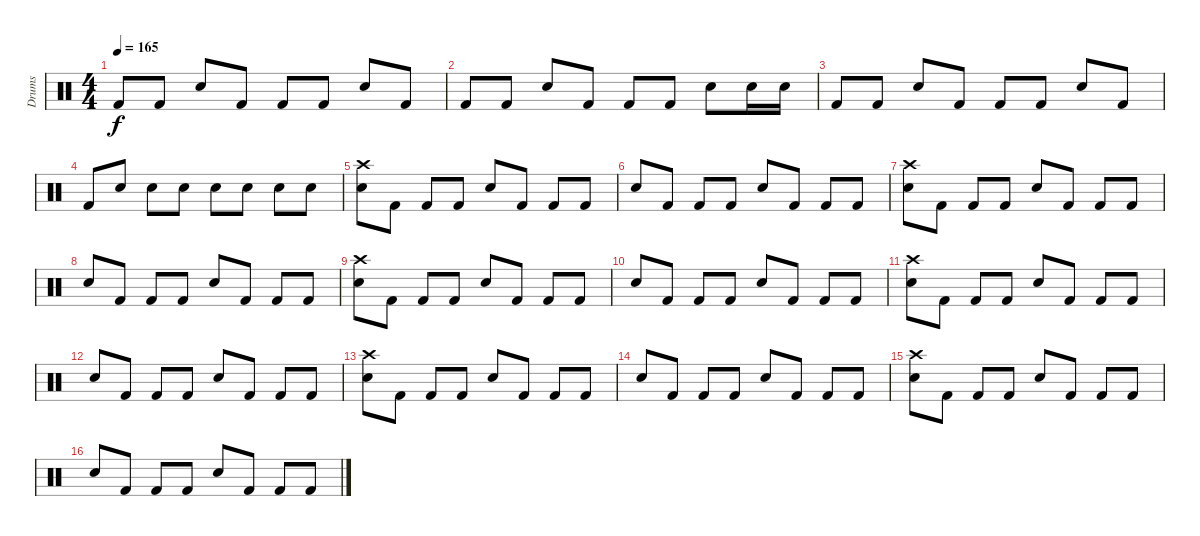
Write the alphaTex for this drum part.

\track ("Drums" "Drums") {instrument percussion}
\staff {score}
\articulation defaults
\ts (4 4)
\tempo 165
\clef neutral
\ks c "Kick (hit) 2".8{dy f} "Kick (hit) 2".8 "Snare (hit) 2".8 "Kick (hit) 2".8 "Kick (hit) 2".8 "Kick (hit) 2".8 "Snare (hit) 2".8 "Kick (hit) 2".8
|
"Kick (hit) 2".8 "Kick (hit) 2".8 "Snare (hit) 2".8 "Kick (hit) 2".8 "Kick (hit) 2".8 "Kick (hit) 2".8 "Snare (hit) 2".8 "Snare (hit) 2".16 "Snare (hit) 2".16 |
"Kick (hit) 2".8 "Kick (hit) 2".8 "Snare (hit) 2".8 "Kick (hit) 2".8 "Kick (hit) 2".8 "Kick (hit) 2".8 "Snare (hit) 2".8 "Kick (hit) 2".8 |
"Kick (hit) 2".8 "Snare (hit) 2".8 "Snare (hit) 2".8 "Snare (hit) 2".8 "Snare (hit) 2".8 "Snare (hit) 2".8 "Snare (hit) 2".8 "Snare (hit) 2".8 |
("Snare (hit) 2" "Crash high (hit)").8 "Kick (hit) 2".8 "Kick (hit) 2".8 "Kick (hit) 2".8 "Snare (hit) 2".8 "Kick (hit) 2".8 "Kick (hit) 2".8 "Kick (hit) 2".8 |
"Snare (hit) 2".8 "Kick (hit) 2".8 "Kick (hit) 2".8 "Kick (hit) 2".8 "Snare (hit) 2".8 "Kick (hit) 2".8 "Kick (hit) 2".8 "Kick (hit) 2".8 |
("Snare (hit) 2" "Crash high (hit)").8 "Kick (hit) 2".8 "Kick (hit) 2".8 "Kick (hit) 2".8 "Snare (hit) 2".8 "Kick (hit) 2".8 "Kick (hit) 2".8 "Kick (hit) 2".8 |
"Snare (hit) 2".8 "Kick (hit) 2".8 "Kick (hit) 2".8 "Kick (hit) 2".8 "Snare (hit) 2".8 "Kick (hit) 2".8 "Kick (hit) 2".8 "Kick (hit) 2".8 |
("Snare (hit) 2" "Crash high (hit)").8 "Kick (hit) 2".8 "Kick (hit) 2".8 "Kick (hit) 2".8 "Snare (hit) 2".8 "Kick (hit) 2".8 "Kick (hit) 2".8 "Kick (hit) 2".8 |
"Snare (hit) 2".8 "Kick (hit) 2".8 "Kick (hit) 2".8 "Kick (hit) 2".8 "Snare (hit) 2".8 "Kick (hit) 2".8 "Kick (hit) 2".8 "Kick (hit) 2".8 |
("Snare (hit) 2" "Crash high (hit)").8 "Kick (hit) 2".8 "Kick (hit) 2".8 "Kick (hit) 2".8 "Snare (hit) 2".8 "Kick (hit) 2".8 "Kick (hit) 2".8 "Kick (hit) 2".8 |
"Snare (hit) 2".8 "Kick (hit) 2".8 "Kick (hit) 2".8 "Kick (hit) 2".8 "Snare (hit) 2".8 "Kick (hit) 2".8 "Kick (hit) 2".8 "Kick (hit) 2".8 |
("Snare (hit) 2" "Crash high (hit)").8 "Kick (hit) 2".8 "Kick (hit) 2".8 "Kick (hit) 2".8 "Snare (hit) 2".8 "Kick (hit) 2".8 "Kick (hit) 2".8 "Kick (hit) 2".8 |
"Snare (hit) 2".8 "Kick (hit) 2".8 "Kick (hit) 2".8 "Kick (hit) 2".8 "Snare (hit) 2".8 "Kick (hit) 2".8 "Kick (hit) 2".8 "Kick (hit) 2".8 |
("Snare (hit) 2" "Crash high (hit)").8 "Kick (hit) 2".8 "Kick (hit) 2".8 "Kick (hit) 2".8 "Snare (hit) 2".8 "Kick (hit) 2".8 "Kick (hit) 2".8 "Kick (hit) 2".8 |
"Snare (hit) 2".8 "Kick (hit) 2".8 "Kick (hit) 2".8 "Kick (hit) 2".8 "Snare (hit) 2".8 "Kick (hit) 2".8 "Kick (hit) 2".8 "Kick (hit) 2".8
